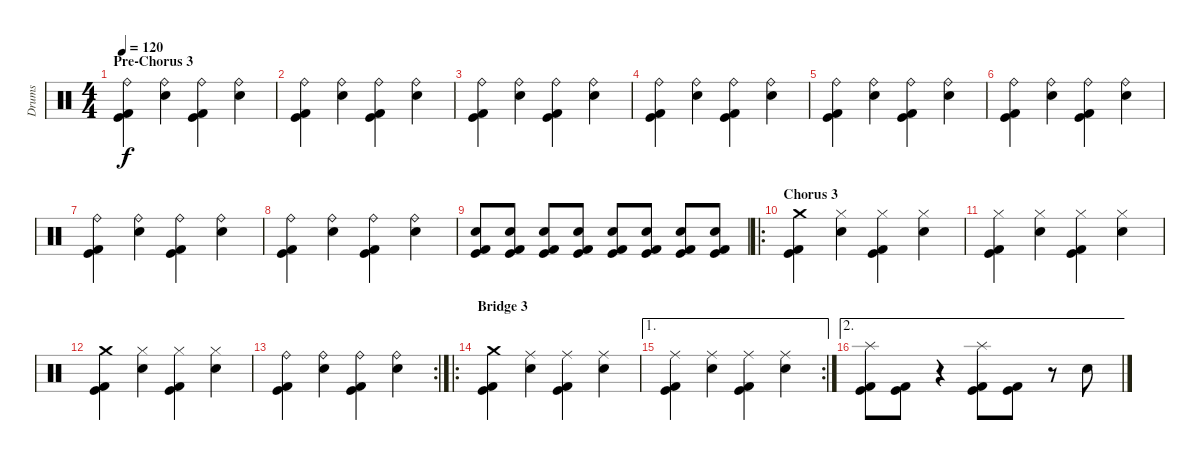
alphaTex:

\track ("Drums" "Drums") {instrument percussion}
\staff {score}
\articulation defaults
\ts (4 4)
\section ("" "Pre-Chorus 3")
\tempo 120
\clef neutral
\ks c
("Kick (hit)" "Kick (hit) 2" "Ride (bell)").4{dy f} ("Snare (hit) 2" "Ride (bell)").4 ("Kick (hit)" "Kick (hit) 2" "Ride (bell)").4 ("Snare (hit) 2" "Ride (bell)").4 |
("Kick (hit)" "Kick (hit) 2" "Ride (bell)").4 ("Snare (hit) 2" "Ride (bell)").4 ("Kick (hit)" "Kick (hit) 2" "Ride (bell)").4 ("Snare (hit) 2" "Ride (bell)").4 |
("Kick (hit)" "Kick (hit) 2" "Ride (bell)").4 ("Snare (hit) 2" "Ride (bell)").4 ("Kick (hit)" "Kick (hit) 2" "Ride (bell)").4 ("Snare (hit) 2" "Ride (bell)").4 |
("Kick (hit)" "Kick (hit) 2" "Ride (bell)").4 ("Snare (hit) 2" "Ride (bell)").4 ("Kick (hit)" "Kick (hit) 2" "Ride (bell)").4 ("Snare (hit) 2" "Ride (bell)").4 |
("Kick (hit)" "Kick (hit) 2" "Ride (bell)").4 ("Snare (hit) 2" "Ride (bell)").4 ("Kick (hit)" "Kick (hit) 2" "Ride (bell)").4 ("Snare (hit) 2" "Ride (bell)").4 |
("Kick (hit)" "Kick (hit) 2" "Ride (bell)").4 ("Snare (hit) 2" "Ride (bell)").4 ("Kick (hit)" "Kick (hit) 2" "Ride (bell)").4 ("Snare (hit) 2" "Ride (bell)").4 |
("Kick (hit)" "Kick (hit) 2" "Ride (bell)").4 ("Snare (hit) 2" "Ride (bell)").4 ("Kick (hit)" "Kick (hit) 2" "Ride (bell)").4 ("Snare (hit) 2" "Ride (bell)").4 |
("Kick (hit)" "Kick (hit) 2" "Ride (bell)").4 ("Snare (hit) 2" "Ride (bell)").4 ("Kick (hit)" "Kick (hit) 2" "Ride (bell)").4 ("Snare (hit) 2" "Ride (bell)").4 |
("Kick (hit)" "Kick (hit) 2" "Snare (hit) 2").8 ("Kick (hit)" "Kick (hit) 2" "Snare (hit) 2").8 ("Kick (hit)" "Kick (hit) 2" "Snare (hit) 2").8 ("Kick (hit)" "Kick (hit) 2" "Snare (hit) 2").8 ("Kick (hit)" "Kick (hit) 2" "Snare (hit) 2").8 ("Kick (hit)" "Kick (hit) 2" "Snare (hit) 2").8 ("Kick (hit)" "Kick (hit) 2" "Snare (hit) 2").8 ("Kick (hit)" "Kick (hit) 2" "Snare (hit) 2").8 |
\ro
\section ("" "Chorus 3")
("Kick (hit)" "Kick (hit) 2" "Crash medium (hit)").4 ("Snare (hit) 2" "Hi-Hat (closed)").4 ("Kick (hit)" "Kick (hit) 2" "Hi-Hat (closed)").4 ("Snare (hit) 2" "Hi-Hat (closed)").4 |
("Kick (hit)" "Kick (hit) 2" "Hi-Hat (closed)").4 ("Snare (hit) 2" "Hi-Hat (closed)").4 ("Kick (hit)" "Kick (hit) 2" "Hi-Hat (closed)").4 ("Snare (hit) 2" "Hi-Hat (closed)").4 |
("Kick (hit)" "Kick (hit) 2" "Crash medium (hit)").4 ("Snare (hit) 2" "Hi-Hat (closed)").4 ("Kick (hit)" "Kick (hit) 2" "Hi-Hat (closed)").4 ("Snare (hit) 2" "Hi-Hat (closed)").4 |
\rc 2
("Kick (hit)" "Kick (hit) 2" "Ride (bell)").4 ("Snare (hit) 2" "Ride (bell)").4 ("Kick (hit)" "Kick (hit) 2" "Ride (bell)").4 ("Snare (hit) 2" "Ride (bell)").4 |
\ro
\section ("" "Bridge 3")
("Kick (hit)" "Kick (hit) 2" "Crash medium (hit)").4 ("Snare (hit) 2" "Ride (middle)").4 ("Kick (hit)" "Kick (hit) 2" "Ride (middle)").4 ("Snare (hit) 2" "Ride (middle)").4 |
\ae 1
\rc 2
("Kick (hit)" "Kick (hit) 2" "Ride (middle)").4 ("Snare (hit) 2" "Ride (middle)").4 ("Kick (hit)" "Kick (hit) 2" "Ride (middle)").4 ("Snare (hit) 2" "Ride (middle)").4 |
\ae 2
("Kick (hit)" "Kick (hit) 2" "Splash (hit)").8 ("Kick (hit)" "Kick (hit) 2").8 r.4 ("Kick (hit)" "Kick (hit) 2" "Splash (hit)").8 ("Kick (hit)" "Kick (hit) 2").8 r.8 "Snare (hit) 2".8
